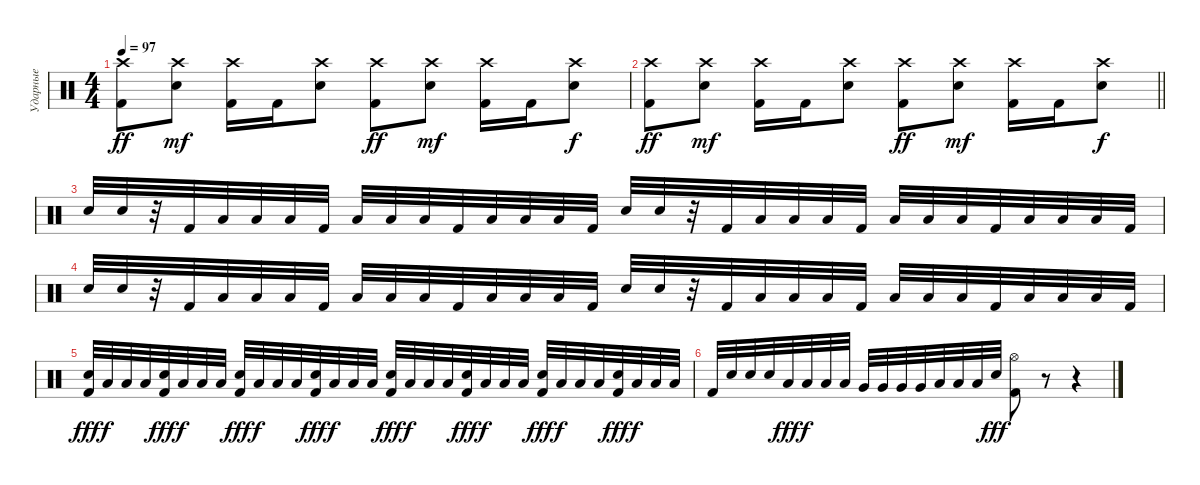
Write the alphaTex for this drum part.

\track ("Ударные" "Ударные") {instrument percussion}
\staff {score}
\articulation defaults
\ts (4 4)
\tempo 97
\clef neutral
\ks c
("Crash high (hit)" "Kick (hit) 2").8{dy ff} ("Crash high (hit)" "Snare (hit) 2").8{dy mf} ("Crash high (hit)" "Kick (hit) 2").16 "Kick (hit) 2".16 ("Crash high (hit)" "Snare (hit) 2").8 ("Crash high (hit)" "Kick (hit) 2").8{dy ff} ("Crash high (hit)" "Snare (hit) 2").8{dy mf} ("Crash high (hit)" "Kick (hit) 2").16 "Kick (hit) 2".16 ("Crash high (hit)" "Snare (hit) 2").8{dy f} |
\barLineRight lightlight
("Crash high (hit)" "Kick (hit) 2").8{dy ff} ("Crash high (hit)" "Snare (hit) 2").8{dy mf} ("Crash high (hit)" "Kick (hit) 2").16 "Kick (hit) 2".16 ("Crash high (hit)" "Snare (hit) 2").8 ("Crash high (hit)" "Kick (hit) 2").8{dy ff} ("Crash high (hit)" "Snare (hit) 2").8{dy mf} ("Crash high (hit)" "Kick (hit) 2").16 "Kick (hit) 2".16 ("Crash high (hit)" "Snare (hit) 2").8{dy f} |
"Snare (hit) 2".32 "Snare (hit) 2".32 r.32 "Kick (hit) 2".32 "Low Tom (hit)".32 "Low Tom (hit)".32 "Low Tom (hit)".32 "Kick (hit) 2".32 "Low Tom (hit)".32 "Low Tom (hit)".32 "Low Tom (hit)".32 "Kick (hit) 2".32 "Low Tom (hit)".32 "Low Tom (hit)".32 "Low Tom (hit)".32 "Kick (hit) 2".32 "Snare (hit) 2".32 "Snare (hit) 2".32 r.32 "Kick (hit) 2".32 "Low Tom (hit)".32 "Low Tom (hit)".32 "Low Tom (hit)".32 "Kick (hit) 2".32 "Low Tom (hit)".32 "Low Tom (hit)".32 "Low Tom (hit)".32 "Kick (hit) 2".32 "Low Tom (hit)".32 "Low Tom (hit)".32 "Low Tom (hit)".32 "Kick (hit) 2".32 |
"Snare (hit) 2".32 "Snare (hit) 2".32 r.32 "Kick (hit) 2".32 "Low Tom (hit)".32 "Low Tom (hit)".32 "Low Tom (hit)".32 "Kick (hit) 2".32 "Low Tom (hit)".32 "Low Tom (hit)".32 "Low Tom (hit)".32 "Kick (hit) 2".32 "Low Tom (hit)".32 "Low Tom (hit)".32 "Low Tom (hit)".32 "Kick (hit) 2".32 "Snare (hit) 2".32 "Snare (hit) 2".32 r.32 "Kick (hit) 2".32 "Low Tom (hit)".32 "Low Tom (hit)".32 "Low Tom (hit)".32 "Kick (hit) 2".32 "Low Tom (hit)".32 "Low Tom (hit)".32 "Low Tom (hit)".32 "Kick (hit) 2".32 "Low Tom (hit)".32 "Low Tom (hit)".32 "Low Tom (hit)".32 "Kick (hit) 2".32 |
("Snare (hit) 2" "Kick (hit) 2").32{dy fff} "Low Tom (hit)".32{dy f} "Low Tom (hit)".32 "Low Tom (hit)".32 ("Snare (hit) 2" "Kick (hit) 2").32{dy fff} "Low Tom (hit)".32{dy f} "Low Tom (hit)".32 "Low Tom (hit)".32 ("Snare (hit) 2" "Kick (hit) 2").32{dy fff} "Low Tom (hit)".32{dy f} "Low Tom (hit)".32 "Low Tom (hit)".32 ("Snare (hit) 2" "Kick (hit) 2").32{dy fff} "Low Tom (hit)".32{dy f} "Low Tom (hit)".32 "Low Tom (hit)".32 ("Snare (hit) 2" "Kick (hit) 2").32{dy fff} "Low Tom (hit)".32{dy f} "Low Tom (hit)".32 "Low Tom (hit)".32 ("Snare (hit) 2" "Kick (hit) 2").32{dy fff} "Low Tom (hit)".32{dy f} "Low Tom (hit)".32 "Low Tom (hit)".32 ("Snare (hit) 2" "Kick (hit) 2").32{dy fff} "Low Tom (hit)".32{dy f} "Low Tom (hit)".32 "Low Tom (hit)".32 ("Snare (hit) 2" "Kick (hit) 2").32{dy fff} "Low Tom (hit)".32{dy f} "Low Tom (hit)".32 "Low Tom (hit)".32 |
"Kick (hit) 2".32 "Snare (hit) 2".32 "Snare (hit) 2".32 "Snare (hit) 2".32 "Low Tom (hit)".32{dy fff} "Low Tom (hit)".32{dy f} "Low Tom (hit)".32 "Low Tom (hit)".32 "Very Low Tom (hit)".32 "Very Low Tom (hit)".32 "Very Low Tom (hit)".32 "Very Low Tom (hit)".32 "Low Floor Tom (hit)".32 "Low Floor Tom (hit)".32 "Low Floor Tom (hit)".32 "Snare (hit) 2".32{dy fff} ("Hi-Hat (open)" "Kick (hit) 2").8 r.8 r.4
